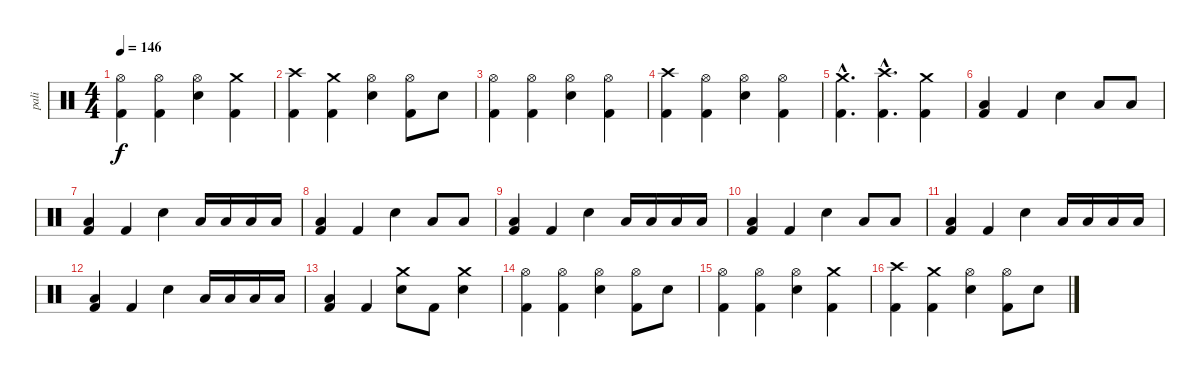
\track ("pali" "pali") {instrument percussion}
\staff {score}
\articulation defaults
\ts (4 4)
\tempo 146
\clef neutral
\ks c
("Kick (hit) 2" "Hi-Hat (open)").4{dy f} ("Kick (hit) 2" "Hi-Hat (open)").4 ("Electric Snare (hit)" "Hi-Hat (open)").4 ("Kick (hit) 2" "Crash medium (hit)").4 |
("Kick (hit) 2" "Crash high (hit)").4 ("Kick (hit) 2" "Crash medium (hit)").4 ("Electric Snare (hit)" "Hi-Hat (open)").4 ("Kick (hit) 2" "Hi-Hat (open)").8 "Electric Snare (hit)".8 |
("Kick (hit) 2" "Hi-Hat (open)").4 ("Kick (hit) 2" "Hi-Hat (open)").4 ("Electric Snare (hit)" "Hi-Hat (open)").4 ("Kick (hit) 2" "Hi-Hat (open)").4 |
("Kick (hit) 2" "Crash high (hit)").4 ("Kick (hit) 2" "Hi-Hat (open)").4 ("Electric Snare (hit)" "Hi-Hat (open)").4 ("Kick (hit) 2" "Hi-Hat (open)").4 |
("Kick (hit) 2"{hac} "Crash medium (hit)"{hac}).4{d} ("Kick (hit) 2"{hac} "Crash high (hit)"{hac}).4{d} ("Kick (hit) 2" "Crash medium (hit)").4 |
("Kick (hit) 2" "Low Floor Tom (hit)").4 "Kick (hit) 2".4 "Electric Snare (hit)".4 "Low Tom (hit)".8 "Low Tom (hit)".8 |
("Kick (hit) 2" "Low Floor Tom (hit)").4 "Kick (hit) 2".4 "Electric Snare (hit)".4 "Low Tom (hit)".16 "Low Tom (hit)".16 "Low Tom (hit)".16 "Low Tom (hit)".16 |
("Kick (hit) 2" "Low Floor Tom (hit)").4 "Kick (hit) 2".4 "Electric Snare (hit)".4 "Low Tom (hit)".8 "Low Tom (hit)".8 |
("Kick (hit) 2" "Low Floor Tom (hit)").4 "Kick (hit) 2".4 "Electric Snare (hit)".4 "Low Tom (hit)".16 "Low Tom (hit)".16 "Low Tom (hit)".16 "Low Tom (hit)".16 |
("Kick (hit) 2" "Low Floor Tom (hit)").4 "Kick (hit) 2".4 "Electric Snare (hit)".4 "Low Tom (hit)".8 "Low Tom (hit)".8 |
("Kick (hit) 2" "Low Floor Tom (hit)").4 "Kick (hit) 2".4 "Electric Snare (hit)".4 "Low Tom (hit)".16 "Low Tom (hit)".16 "Low Tom (hit)".16 "Low Tom (hit)".16 |
("Kick (hit) 2" "Low Floor Tom (hit)").4 "Kick (hit) 2".4 "Electric Snare (hit)".4 "Low Tom (hit)".16 "Low Tom (hit)".16 "Low Tom (hit)".16 "Low Tom (hit)".16 |
("Kick (hit) 2" "Low Floor Tom (hit)").4 "Kick (hit) 2".4 ("Electric Snare (hit)" "Crash medium (hit)").8 "Kick (hit) 2".8 ("Electric Snare (hit)" "Crash medium (hit)").4 |
("Kick (hit) 2" "Hi-Hat (open)").4 ("Kick (hit) 2" "Hi-Hat (open)").4 ("Electric Snare (hit)" "Hi-Hat (open)").4 ("Kick (hit) 2" "Hi-Hat (open)").8 "Electric Snare (hit)".8 |
("Kick (hit) 2" "Hi-Hat (open)").4 ("Kick (hit) 2" "Hi-Hat (open)").4 ("Electric Snare (hit)" "Hi-Hat (open)").4 ("Kick (hit) 2" "Crash medium (hit)").4 |
("Kick (hit) 2" "Crash high (hit)").4 ("Kick (hit) 2" "Crash medium (hit)").4 ("Electric Snare (hit)" "Hi-Hat (open)").4 ("Kick (hit) 2" "Hi-Hat (open)").8 "Electric Snare (hit)".8
